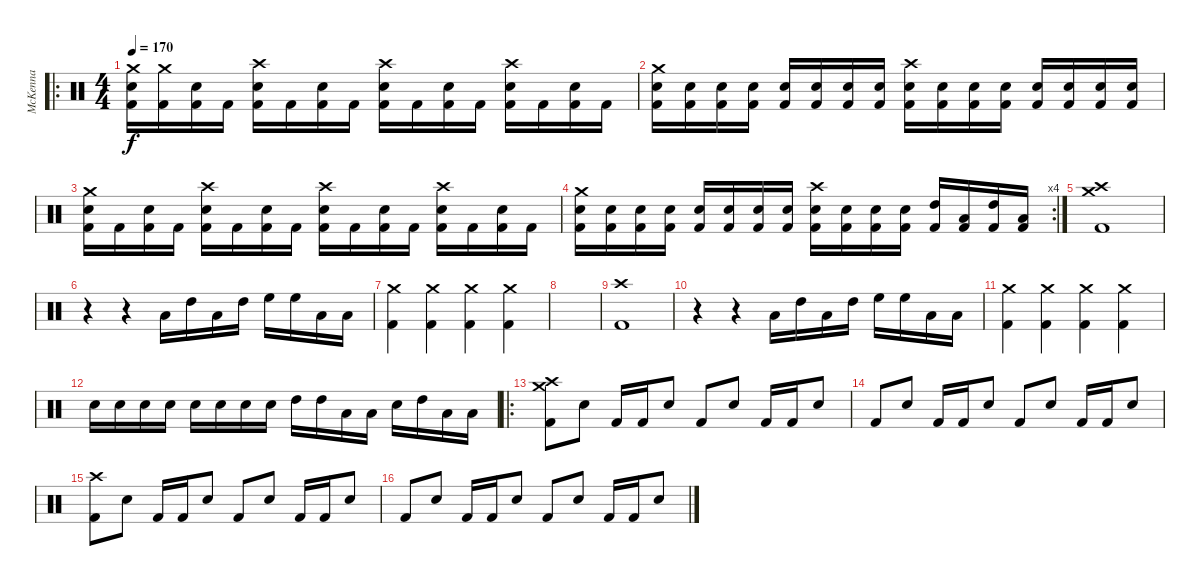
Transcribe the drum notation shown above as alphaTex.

\track ("McKenna" "McKenna") {instrument percussion}
\staff {score}
\articulation defaults
\ro
\ts (4 4)
\tempo 170
\clef neutral
\ks c
("Crash medium (hit)" "Snare (hit) 2" "Kick (hit) 2").16{dy f} ("Crash medium (hit)" "Kick (hit) 2").16 ("Snare (hit) 2" "Kick (hit) 2").16 "Kick (hit) 2".16 ("Crash high (hit)" "Snare (hit) 2" "Kick (hit) 2").16 "Kick (hit) 2".16 ("Snare (hit) 2" "Kick (hit) 2").16 "Kick (hit) 2".16 ("Crash high (hit)" "Snare (hit) 2" "Kick (hit) 2").16 "Kick (hit) 2".16 ("Snare (hit) 2" "Kick (hit) 2").16 "Kick (hit) 2".16 ("Crash high (hit)" "Snare (hit) 2" "Kick (hit) 2").16 "Kick (hit) 2".16 ("Snare (hit) 2" "Kick (hit) 2").16 "Kick (hit) 2".16 |
("Crash medium (hit)" "Snare (hit) 2" "Kick (hit) 2").16 ("Snare (hit) 2" "Kick (hit) 2").16 ("Snare (hit) 2" "Kick (hit) 2").16 ("Snare (hit) 2" "Kick (hit) 2").16 ("Snare (hit) 2" "Kick (hit) 2").16 ("Snare (hit) 2" "Kick (hit) 2").16 ("Snare (hit) 2" "Kick (hit) 2").16 ("Snare (hit) 2" "Kick (hit) 2").16 ("Crash high (hit)" "Snare (hit) 2" "Kick (hit) 2").16 ("Snare (hit) 2" "Kick (hit) 2").16 ("Snare (hit) 2" "Kick (hit) 2").16 ("Snare (hit) 2" "Kick (hit) 2").16 ("Snare (hit) 2" "Kick (hit) 2").16 ("Snare (hit) 2" "Kick (hit) 2").16 ("Snare (hit) 2" "Kick (hit) 2").16 ("Snare (hit) 2" "Kick (hit) 2").16 |
("Crash medium (hit)" "Snare (hit) 2" "Kick (hit) 2").16 "Kick (hit) 2".16 ("Snare (hit) 2" "Kick (hit) 2").16 "Kick (hit) 2".16 ("Crash high (hit)" "Snare (hit) 2" "Kick (hit) 2").16 "Kick (hit) 2".16 ("Snare (hit) 2" "Kick (hit) 2").16 "Kick (hit) 2".16 ("Crash high (hit)" "Snare (hit) 2" "Kick (hit) 2").16 "Kick (hit) 2".16 ("Snare (hit) 2" "Kick (hit) 2").16 "Kick (hit) 2".16 ("Crash high (hit)" "Snare (hit) 2" "Kick (hit) 2").16 "Kick (hit) 2".16 ("Snare (hit) 2" "Kick (hit) 2").16 "Kick (hit) 2".16 |
\rc 4
("Crash medium (hit)" "Snare (hit) 2" "Kick (hit) 2").16 ("Snare (hit) 2" "Kick (hit) 2").16 ("Snare (hit) 2" "Kick (hit) 2").16 ("Snare (hit) 2" "Kick (hit) 2").16 ("Snare (hit) 2" "Kick (hit) 2").16 ("Snare (hit) 2" "Kick (hit) 2").16 ("Snare (hit) 2" "Kick (hit) 2").16 ("Snare (hit) 2" "Kick (hit) 2").16 ("Crash high (hit)" "Snare (hit) 2" "Kick (hit) 2").16 ("Snare (hit) 2" "Kick (hit) 2").16 ("Snare (hit) 2" "Kick (hit) 2").16 ("Snare (hit) 2" "Kick (hit) 2").16 ("High Tom (hit)" "Kick (hit) 2").16 ("Low Tom (hit)" "Kick (hit) 2").16 ("High Tom (hit)" "Kick (hit) 2").16 ("Low Tom (hit)" "Kick (hit) 2").16 |
("Crash medium (hit)" "Crash high (hit)" "Kick (hit) 2").1 |
r.4 r.4 "Low Tom (hit)".16 "High Tom (hit)".16 "Low Tom (hit)".16 "High Tom (hit)".16 "High Floor Tom (hit)".16 "High Floor Tom (hit)".16 "Low Tom (hit)".16 "Low Tom (hit)".16 |
("Crash medium (hit)" "Kick (hit) 2").4 ("Crash medium (hit)" "Kick (hit) 2").4 ("Crash medium (hit)" "Kick (hit) 2").4 ("Crash medium (hit)" "Kick (hit) 2").4 |
|
("Crash high (hit)" "Kick (hit) 2").1 |
r.4 r.4 "Low Tom (hit)".16 "High Tom (hit)".16 "Low Tom (hit)".16 "High Tom (hit)".16 "High Floor Tom (hit)".16 "High Floor Tom (hit)".16 "Low Tom (hit)".16 "Low Tom (hit)".16 |
("Crash medium (hit)" "Kick (hit) 2").4 ("Crash medium (hit)" "Kick (hit) 2").4 ("Crash medium (hit)" "Kick (hit) 2").4 ("Crash medium (hit)" "Kick (hit) 2").4 |
"Snare (hit) 2".16 "Snare (hit) 2".16 "Snare (hit) 2".16 "Snare (hit) 2".16 "Snare (hit) 2".16 "Snare (hit) 2".16 "Snare (hit) 2".16 "Snare (hit) 2".16 "High Tom (hit)".16 "High Tom (hit)".16 "Low Tom (hit)".16 "Low Tom (hit)".16 "Snare (hit) 2".16 "High Tom (hit)".16 "Low Tom (hit)".16 "Low Tom (hit)".16 |
\ro
("Crash medium (hit)" "Crash high (hit)" "Kick (hit) 2").8 "Snare (hit) 2".8 "Kick (hit) 2".16 "Kick (hit) 2".16 "Snare (hit) 2".8 "Kick (hit) 2".8 "Snare (hit) 2".8 "Kick (hit) 2".16 "Kick (hit) 2".16 "Snare (hit) 2".8 |
"Kick (hit) 2".8 "Snare (hit) 2".8 "Kick (hit) 2".16 "Kick (hit) 2".16 "Snare (hit) 2".8 "Kick (hit) 2".8 "Snare (hit) 2".8 "Kick (hit) 2".16 "Kick (hit) 2".16 "Snare (hit) 2".8 |
("Crash high (hit)" "Kick (hit) 2").8 "Snare (hit) 2".8 "Kick (hit) 2".16 "Kick (hit) 2".16 "Snare (hit) 2".8 "Kick (hit) 2".8 "Snare (hit) 2".8 "Kick (hit) 2".16 "Kick (hit) 2".16 "Snare (hit) 2".8 |
"Kick (hit) 2".8 "Snare (hit) 2".8 "Kick (hit) 2".16 "Kick (hit) 2".16 "Snare (hit) 2".8 "Kick (hit) 2".8 "Snare (hit) 2".8 "Kick (hit) 2".16 "Kick (hit) 2".16 "Snare (hit) 2".8
